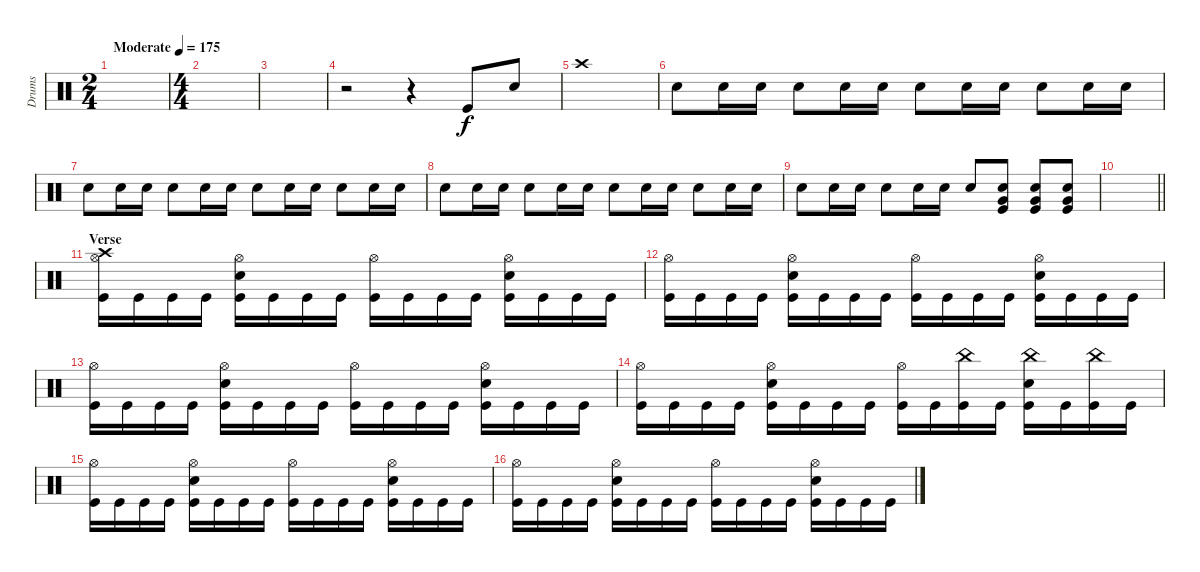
\track ("Drums" "Drums") {instrument percussion}
\staff {score}
\articulation defaults
\ts (2 4)
\tempo (175 "Moderate")
\clef neutral
\ks c
|
\ts (4 4)
|
|
r.2 r.4 "Kick (hit)".8 "Electric Snare (hit)".8 |
"Crash high (hit)".1 |
"Electric Snare (hit)".8{volume 2} "Electric Snare (hit)".16 "Electric Snare (hit)".16 "Electric Snare (hit)".8 "Electric Snare (hit)".16 "Electric Snare (hit)".16 "Electric Snare (hit)".8{volume 4} "Electric Snare (hit)".16 "Electric Snare (hit)".16 "Electric Snare (hit)".8 "Electric Snare (hit)".16 "Electric Snare (hit)".16 |
"Electric Snare (hit)".8{volume 6} "Electric Snare (hit)".16 "Electric Snare (hit)".16 "Electric Snare (hit)".8 "Electric Snare (hit)".16 "Electric Snare (hit)".16 "Electric Snare (hit)".8{volume 8} "Electric Snare (hit)".16 "Electric Snare (hit)".16 "Electric Snare (hit)".8 "Electric Snare (hit)".16 "Electric Snare (hit)".16 |
"Electric Snare (hit)".8{volume 10} "Electric Snare (hit)".16 "Electric Snare (hit)".16 "Electric Snare (hit)".8 "Electric Snare (hit)".16 "Electric Snare (hit)".16 "Electric Snare (hit)".8{volume 12} "Electric Snare (hit)".16 "Electric Snare (hit)".16 "Electric Snare (hit)".8 "Electric Snare (hit)".16 "Electric Snare (hit)".16 |
"Electric Snare (hit)".8{volume 13} "Electric Snare (hit)".16 "Electric Snare (hit)".16 "Electric Snare (hit)".8 "Electric Snare (hit)".16 "Electric Snare (hit)".16 "Electric Snare (hit)".8 ("Very Low Tom (hit)" "Electric Snare (hit)" "Kick (hit)").8 ("Very Low Tom (hit)" "Electric Snare (hit)" "Kick (hit)").8 ("Very Low Tom (hit)" "Electric Snare (hit)" "Kick (hit)").8 |
\barLineRight lightlight
|
\section ("" "Verse")
("Crash high (hit)" "Hi-Hat (open)" "Kick (hit)").16 "Kick (hit)".16 "Kick (hit)".16 "Kick (hit)".16 ("Hi-Hat (open)" "Electric Snare (hit)" "Kick (hit)").16 "Kick (hit)".16 "Kick (hit)".16 "Kick (hit)".16 ("Hi-Hat (open)" "Kick (hit)").16 "Kick (hit)".16 "Kick (hit)".16 "Kick (hit)".16 ("Hi-Hat (open)" "Electric Snare (hit)" "Kick (hit)").16 "Kick (hit)".16 "Kick (hit)".16 "Kick (hit)".16 |
("Hi-Hat (open)" "Kick (hit)").16 "Kick (hit)".16 "Kick (hit)".16 "Kick (hit)".16 ("Hi-Hat (open)" "Electric Snare (hit)" "Kick (hit)").16 "Kick (hit)".16 "Kick (hit)".16 "Kick (hit)".16 ("Hi-Hat (open)" "Kick (hit)").16 "Kick (hit)".16 "Kick (hit)".16 "Kick (hit)".16 ("Hi-Hat (open)" "Electric Snare (hit)" "Kick (hit)").16 "Kick (hit)".16 "Kick (hit)".16 "Kick (hit)".16 |
("Hi-Hat (open)" "Kick (hit)").16 "Kick (hit)".16 "Kick (hit)".16 "Kick (hit)".16 ("Hi-Hat (open)" "Electric Snare (hit)" "Kick (hit)").16 "Kick (hit)".16 "Kick (hit)".16 "Kick (hit)".16 ("Hi-Hat (open)" "Kick (hit)").16 "Kick (hit)".16 "Kick (hit)".16 "Kick (hit)".16 ("Hi-Hat (open)" "Electric Snare (hit)" "Kick (hit)").16 "Kick (hit)".16 "Kick (hit)".16 "Kick (hit)".16 |
("Hi-Hat (open)" "Kick (hit)").16 "Kick (hit)".16 "Kick (hit)".16 "Kick (hit)".16 ("Hi-Hat (open)" "Electric Snare (hit)" "Kick (hit)").16 "Kick (hit)".16 "Kick (hit)".16 "Kick (hit)".16 ("Hi-Hat (open)" "Kick (hit)").16 "Kick (hit)".16 ("China (hit)" "Kick (hit)").16 "Kick (hit)".16 ("China (hit)" "Electric Snare (hit)" "Kick (hit)").16 "Kick (hit)".16 ("China (hit)" "Kick (hit)").16 "Kick (hit)".16 |
("Hi-Hat (open)" "Kick (hit)").16 "Kick (hit)".16 "Kick (hit)".16 "Kick (hit)".16 ("Hi-Hat (open)" "Electric Snare (hit)" "Kick (hit)").16 "Kick (hit)".16 "Kick (hit)".16 "Kick (hit)".16 ("Hi-Hat (open)" "Kick (hit)").16 "Kick (hit)".16 "Kick (hit)".16 "Kick (hit)".16 ("Hi-Hat (open)" "Electric Snare (hit)" "Kick (hit)").16 "Kick (hit)".16 "Kick (hit)".16 "Kick (hit)".16 |
("Hi-Hat (open)" "Kick (hit)").16 "Kick (hit)".16 "Kick (hit)".16 "Kick (hit)".16 ("Hi-Hat (open)" "Electric Snare (hit)" "Kick (hit)").16 "Kick (hit)".16 "Kick (hit)".16 "Kick (hit)".16 ("Hi-Hat (open)" "Kick (hit)").16 "Kick (hit)".16 "Kick (hit)".16 "Kick (hit)".16 ("Hi-Hat (open)" "Electric Snare (hit)" "Kick (hit)").16 "Kick (hit)".16 "Kick (hit)".16 "Kick (hit)".16
